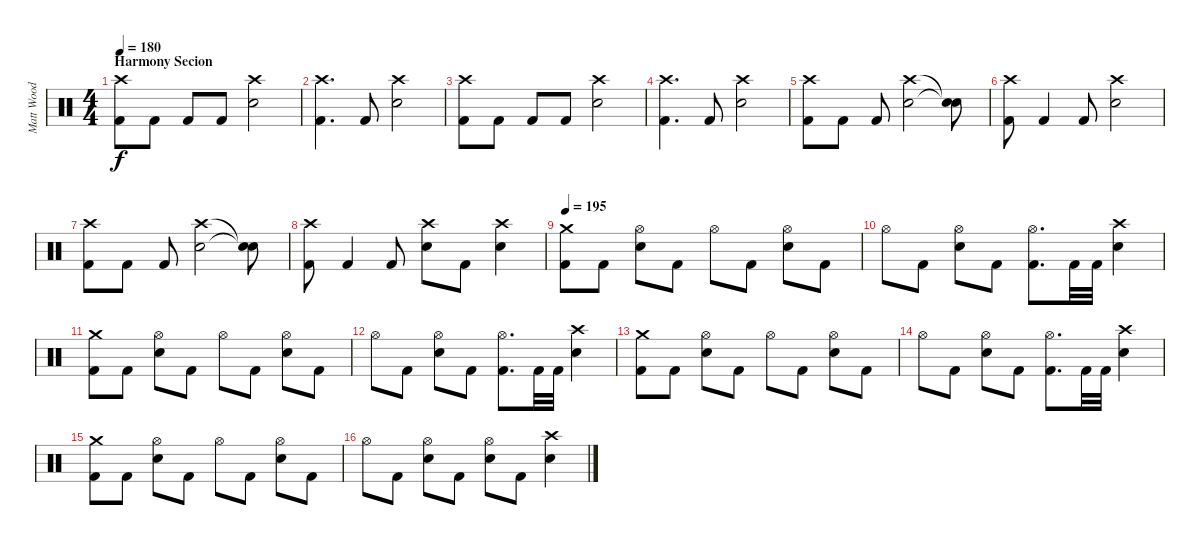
\track ("Matt Wood" "Matt Wood") {instrument percussion}
\staff {score}
\articulation defaults
\ts (4 4)
\section ("" "Harmony Secion")
\tempo 180
\clef neutral
\ks c
("Crash high (hit)" "Kick (hit) 2").8{dy f} "Kick (hit) 2".8 "Kick (hit) 2".8 "Kick (hit) 2".8 ("Crash high (hit)" "Snare (hit) 2").2 |
("Crash high (hit)" "Kick (hit) 2").4{d} "Kick (hit) 2".8 ("Crash high (hit)" "Snare (hit) 2").2 |
("Crash high (hit)" "Kick (hit) 2").8 "Kick (hit) 2".8 "Kick (hit) 2".8 "Kick (hit) 2".8 ("Crash high (hit)" "Snare (hit) 2").2 |
("Crash high (hit)" "Kick (hit) 2").4{d} "Kick (hit) 2".8 ("Crash high (hit)" "Snare (hit) 2").2 |
("Crash high (hit)" "Kick (hit) 2").8 "Kick (hit) 2".8 "Kick (hit) 2".8 ("Crash high (hit)" "Snare (hit) 2").2 ("Snare (hit)"{t} "Snare (hit)"{t}).8 |
("Crash high (hit)" "Kick (hit) 2").8 "Kick (hit) 2".4 "Kick (hit) 2".8 ("Crash high (hit)" "Snare (hit) 2").2 |
("Crash high (hit)" "Kick (hit) 2").8 "Kick (hit) 2".8 "Kick (hit) 2".8 ("Crash high (hit)" "Snare (hit) 2").2 ("Snare (hit)"{t} "Snare (hit)"{t}).8 |
("Crash high (hit)" "Kick (hit) 2").8 "Kick (hit) 2".4 "Kick (hit) 2".8 ("Crash high (hit)" "Snare (hit) 2").8 "Kick (hit) 2".8 ("Crash high (hit)" "Snare (hit) 2").4 |
\tempo 195
("Crash medium (hit)" "Kick (hit) 2").8 "Kick (hit) 2".8 ("Hi-Hat (open)" "Snare (hit) 2").8 "Kick (hit) 2".8 "Hi-Hat (open)".8 "Kick (hit) 2".8 ("Hi-Hat (open)" "Snare (hit) 2").8 "Kick (hit) 2".8 |
"Hi-Hat (open)".8 "Kick (hit) 2".8 ("Hi-Hat (open)" "Snare (hit) 2").8 "Kick (hit) 2".8 ("Hi-Hat (open)" "Kick (hit) 2").8{d} "Kick (hit) 2".32 "Kick (hit) 2".32 ("Crash high (hit)" "Snare (hit) 2").4 |
("Crash medium (hit)" "Kick (hit) 2").8 "Kick (hit) 2".8 ("Hi-Hat (open)" "Snare (hit) 2").8 "Kick (hit) 2".8 "Hi-Hat (open)".8 "Kick (hit) 2".8 ("Hi-Hat (open)" "Snare (hit) 2").8 "Kick (hit) 2".8 |
"Hi-Hat (open)".8 "Kick (hit) 2".8 ("Hi-Hat (open)" "Snare (hit) 2").8 "Kick (hit) 2".8 ("Hi-Hat (open)" "Kick (hit) 2").8{d} "Kick (hit) 2".32 "Kick (hit) 2".32 ("Crash high (hit)" "Snare (hit) 2").4 |
("Crash medium (hit)" "Kick (hit) 2").8 "Kick (hit) 2".8 ("Hi-Hat (open)" "Snare (hit) 2").8 "Kick (hit) 2".8 "Hi-Hat (open)".8 "Kick (hit) 2".8 ("Hi-Hat (open)" "Snare (hit) 2").8 "Kick (hit) 2".8 |
"Hi-Hat (open)".8 "Kick (hit) 2".8 ("Hi-Hat (open)" "Snare (hit) 2").8 "Kick (hit) 2".8 ("Hi-Hat (open)" "Kick (hit) 2").8{d} "Kick (hit) 2".32 "Kick (hit) 2".32 ("Crash high (hit)" "Snare (hit) 2").4 |
("Crash medium (hit)" "Kick (hit) 2").8 "Kick (hit) 2".8 ("Hi-Hat (open)" "Snare (hit) 2").8 "Kick (hit) 2".8 "Hi-Hat (open)".8 "Kick (hit) 2".8 ("Hi-Hat (open)" "Snare (hit) 2").8 "Kick (hit) 2".8 |
"Hi-Hat (open)".8 "Kick (hit) 2".8 ("Hi-Hat (open)" "Snare (hit) 2").8 "Kick (hit) 2".8 ("Hi-Hat (open)" "Snare (hit) 2").8 "Kick (hit) 2".8 ("Crash high (hit)" "Snare (hit) 2").4
